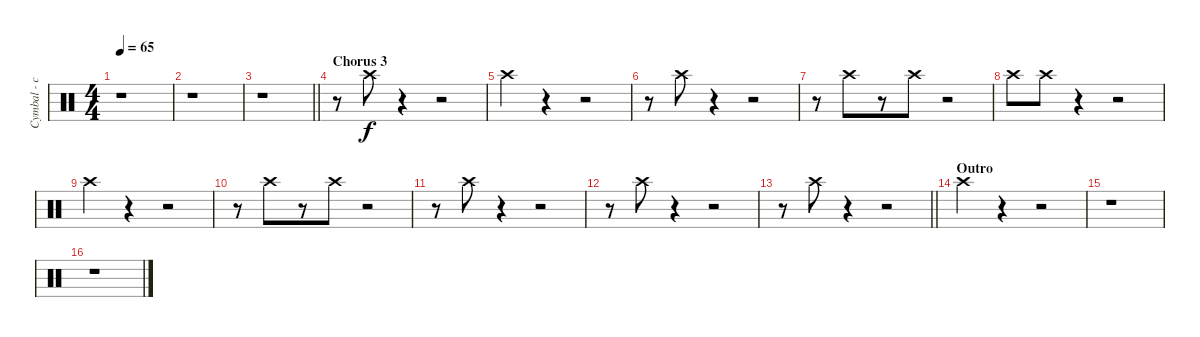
\track ("Cymbal - crash - left" "Cymbal - c") {instrument percussion}
\staff {score}
\articulation defaults
\ts (4 4)
\tempo 65
\clef neutral
\ks c
r.1{dy f} |
r.1 |
\barLineRight lightlight
r.1 |
\section ("" "Chorus 3")
r.8 "Crash high (hit)".8 r.4 r.2 |
"Crash high (hit)".4 r.4 r.2 |
r.8 "Crash high (hit)".8 r.4 r.2 |
r.8 "Crash high (hit)".8{beam merge} r.8 "Crash high (hit)".8 r.2 |
"Crash high (hit)".8 "Crash high (hit)".8 r.4 r.2 |
"Crash high (hit)".4 r.4 r.2 |
r.8 "Crash high (hit)".8{beam merge} r.8 "Crash high (hit)".8 r.2 |
r.8 "Crash high (hit)".8 r.4 r.2 |
r.8 "Crash high (hit)".8 r.4 r.2 |
\barLineRight lightlight
r.8 "Crash high (hit)".8 r.4 r.2 |
\section ("" "Outro")
"Crash high (hit)".4 r.4 r.2 |
r.1 |
r.1
